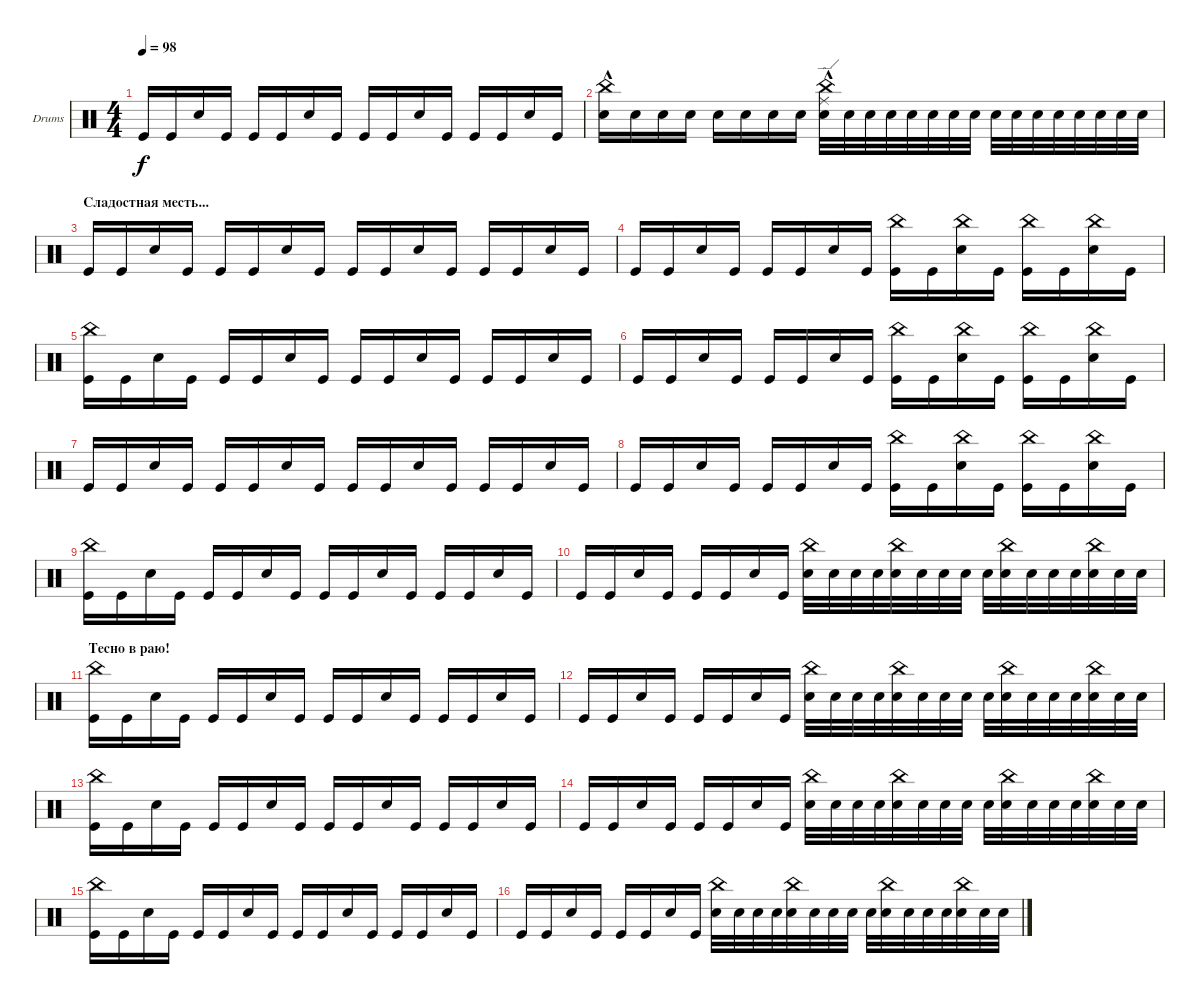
\defaultSystemsLayout 4
\bracketExtendMode groupsimilarinstruments
\firstSystemTrackNameOrientation horizontal
\otherSystemsTrackNameOrientation horizontal
\track ("Drumkit" "Drums") {instrument percussion}
\staff {score}
\articulation defaults
\ts (4 4)
\tempo 98
\clef neutral
\ks c "Kick (hit)".16{dy f} "Kick (hit)".16 "Snare (hit) 2".16 "Kick (hit)".16 "Kick (hit)".16 "Kick (hit)".16 "Snare (hit) 2".16 "Kick (hit)".16 "Kick (hit)".16 "Kick (hit)".16 "Snare (hit) 2".16 "Kick (hit)".16 "Kick (hit)".16 "Kick (hit)".16 "Snare (hit) 2".16 "Kick (hit)".16
|
("Snare (hit) 2" "China (hit)"{hac}).16 "Snare (hit) 2".16 "Snare (hit) 2".16 "Snare (hit) 2".16 "Snare (hit) 2".16 "Snare (hit) 2".16 "Snare (hit) 2".16 "Snare (hit) 2".16 ("Snare (hit) 2" "China (hit)"{hac} "Ride (edge)").32 "Snare (hit) 2".32 "Snare (hit) 2".32 "Snare (hit) 2".32 "Snare (hit) 2".32 "Snare (hit) 2".32 "Snare (hit) 2".32 "Snare (hit) 2".32 "Snare (hit) 2".32 "Snare (hit) 2".32 "Snare (hit) 2".32 "Snare (hit) 2".32 "Snare (hit) 2".32 "Snare (hit) 2".32 "Snare (hit) 2".32 "Snare (hit) 2".32 |
\section ("" "Сладостная месть...")
"Kick (hit)".16 "Kick (hit)".16 "Snare (hit) 2".16 "Kick (hit)".16 "Kick (hit)".16 "Kick (hit)".16 "Snare (hit) 2".16 "Kick (hit)".16 "Kick (hit)".16 "Kick (hit)".16 "Snare (hit) 2".16 "Kick (hit)".16 "Kick (hit)".16 "Kick (hit)".16 "Snare (hit) 2".16 "Kick (hit)".16 |
"Kick (hit)".16 "Kick (hit)".16 "Snare (hit) 2".16 "Kick (hit)".16 "Kick (hit)".16 "Kick (hit)".16 "Snare (hit) 2".16 "Kick (hit)".16 ("Kick (hit)" "China (hit)").16 "Kick (hit)".16 ("Snare (hit) 2" "China (hit)").16 "Kick (hit)".16 ("Kick (hit)" "China (hit)").16 "Kick (hit)".16 ("Snare (hit) 2" "China (hit)").16 "Kick (hit)".16 |
("Kick (hit)" "China (hit)").16 "Kick (hit)".16 "Snare (hit) 2".16 "Kick (hit)".16 "Kick (hit)".16 "Kick (hit)".16 "Snare (hit) 2".16 "Kick (hit)".16 "Kick (hit)".16 "Kick (hit)".16 "Snare (hit) 2".16 "Kick (hit)".16 "Kick (hit)".16 "Kick (hit)".16 "Snare (hit) 2".16 "Kick (hit)".16 |
"Kick (hit)".16 "Kick (hit)".16 "Snare (hit) 2".16 "Kick (hit)".16 "Kick (hit)".16 "Kick (hit)".16 "Snare (hit) 2".16 "Kick (hit)".16 ("Kick (hit)" "China (hit)").16 "Kick (hit)".16 ("Snare (hit) 2" "China (hit)").16 "Kick (hit)".16 ("Kick (hit)" "China (hit)").16 "Kick (hit)".16 ("Snare (hit) 2" "China (hit)").16 "Kick (hit)".16 |
"Kick (hit)".16 "Kick (hit)".16 "Snare (hit) 2".16 "Kick (hit)".16 "Kick (hit)".16 "Kick (hit)".16 "Snare (hit) 2".16 "Kick (hit)".16 "Kick (hit)".16 "Kick (hit)".16 "Snare (hit) 2".16 "Kick (hit)".16 "Kick (hit)".16 "Kick (hit)".16 "Snare (hit) 2".16 "Kick (hit)".16 |
"Kick (hit)".16 "Kick (hit)".16 "Snare (hit) 2".16 "Kick (hit)".16 "Kick (hit)".16 "Kick (hit)".16 "Snare (hit) 2".16 "Kick (hit)".16 ("Kick (hit)" "China (hit)").16 "Kick (hit)".16 ("Snare (hit) 2" "China (hit)").16 "Kick (hit)".16 ("Kick (hit)" "China (hit)").16 "Kick (hit)".16 ("Snare (hit) 2" "China (hit)").16 "Kick (hit)".16 |
("Kick (hit)" "China (hit)").16 "Kick (hit)".16 "Snare (hit) 2".16 "Kick (hit)".16 "Kick (hit)".16 "Kick (hit)".16 "Snare (hit) 2".16 "Kick (hit)".16 "Kick (hit)".16 "Kick (hit)".16 "Snare (hit) 2".16 "Kick (hit)".16 "Kick (hit)".16 "Kick (hit)".16 "Snare (hit) 2".16 "Kick (hit)".16 |
"Kick (hit)".16 "Kick (hit)".16 "Snare (hit) 2".16 "Kick (hit)".16 "Kick (hit)".16 "Kick (hit)".16 "Snare (hit) 2".16 "Kick (hit)".16 ("Snare (hit) 2" "China (hit)").32 "Snare (hit) 2".32 "Snare (hit) 2".32 "Snare (hit) 2".32 ("Snare (hit) 2" "China (hit)").32 "Snare (hit) 2".32 "Snare (hit) 2".32 "Snare (hit) 2".32 "Snare (hit) 2".32 ("Snare (hit) 2" "China (hit)").32 "Snare (hit) 2".32 "Snare (hit) 2".32 "Snare (hit) 2".32 ("Snare (hit) 2" "China (hit)").32 "Snare (hit) 2".32 "Snare (hit) 2".32 |
\section ("" "Тесно в раю!")
("Kick (hit)" "China (hit)").16 "Kick (hit)".16 "Snare (hit) 2".16 "Kick (hit)".16 "Kick (hit)".16 "Kick (hit)".16 "Snare (hit) 2".16 "Kick (hit)".16 "Kick (hit)".16 "Kick (hit)".16 "Snare (hit) 2".16 "Kick (hit)".16 "Kick (hit)".16 "Kick (hit)".16 "Snare (hit) 2".16 "Kick (hit)".16 |
"Kick (hit)".16 "Kick (hit)".16 "Snare (hit) 2".16 "Kick (hit)".16 "Kick (hit)".16 "Kick (hit)".16 "Snare (hit) 2".16 "Kick (hit)".16 ("Snare (hit) 2" "China (hit)").32 "Snare (hit) 2".32 "Snare (hit) 2".32 "Snare (hit) 2".32 ("Snare (hit) 2" "China (hit)").32 "Snare (hit) 2".32 "Snare (hit) 2".32 "Snare (hit) 2".32 "Snare (hit) 2".32 ("Snare (hit) 2" "China (hit)").32 "Snare (hit) 2".32 "Snare (hit) 2".32 "Snare (hit) 2".32 ("Snare (hit) 2" "China (hit)").32 "Snare (hit) 2".32 "Snare (hit) 2".32 |
("Kick (hit)" "China (hit)").16 "Kick (hit)".16 "Snare (hit) 2".16 "Kick (hit)".16 "Kick (hit)".16 "Kick (hit)".16 "Snare (hit) 2".16 "Kick (hit)".16 "Kick (hit)".16 "Kick (hit)".16 "Snare (hit) 2".16 "Kick (hit)".16 "Kick (hit)".16 "Kick (hit)".16 "Snare (hit) 2".16 "Kick (hit)".16 |
"Kick (hit)".16 "Kick (hit)".16 "Snare (hit) 2".16 "Kick (hit)".16 "Kick (hit)".16 "Kick (hit)".16 "Snare (hit) 2".16 "Kick (hit)".16 ("Snare (hit) 2" "China (hit)").32 "Snare (hit) 2".32 "Snare (hit) 2".32 "Snare (hit) 2".32 ("Snare (hit) 2" "China (hit)").32 "Snare (hit) 2".32 "Snare (hit) 2".32 "Snare (hit) 2".32 "Snare (hit) 2".32 ("Snare (hit) 2" "China (hit)").32 "Snare (hit) 2".32 "Snare (hit) 2".32 "Snare (hit) 2".32 ("Snare (hit) 2" "China (hit)").32 "Snare (hit) 2".32 "Snare (hit) 2".32 |
("Kick (hit)" "China (hit)").16 "Kick (hit)".16 "Snare (hit) 2".16 "Kick (hit)".16 "Kick (hit)".16 "Kick (hit)".16 "Snare (hit) 2".16 "Kick (hit)".16 "Kick (hit)".16 "Kick (hit)".16 "Snare (hit) 2".16 "Kick (hit)".16 "Kick (hit)".16 "Kick (hit)".16 "Snare (hit) 2".16 "Kick (hit)".16 |
"Kick (hit)".16 "Kick (hit)".16 "Snare (hit) 2".16 "Kick (hit)".16 "Kick (hit)".16 "Kick (hit)".16 "Snare (hit) 2".16 "Kick (hit)".16 ("Snare (hit) 2" "China (hit)").32 "Snare (hit) 2".32 "Snare (hit) 2".32 "Snare (hit) 2".32 ("Snare (hit) 2" "China (hit)").32 "Snare (hit) 2".32 "Snare (hit) 2".32 "Snare (hit) 2".32 "Snare (hit) 2".32 ("Snare (hit) 2" "China (hit)").32 "Snare (hit) 2".32 "Snare (hit) 2".32 "Snare (hit) 2".32 ("Snare (hit) 2" "China (hit)").32 "Snare (hit) 2".32 "Snare (hit) 2".32
